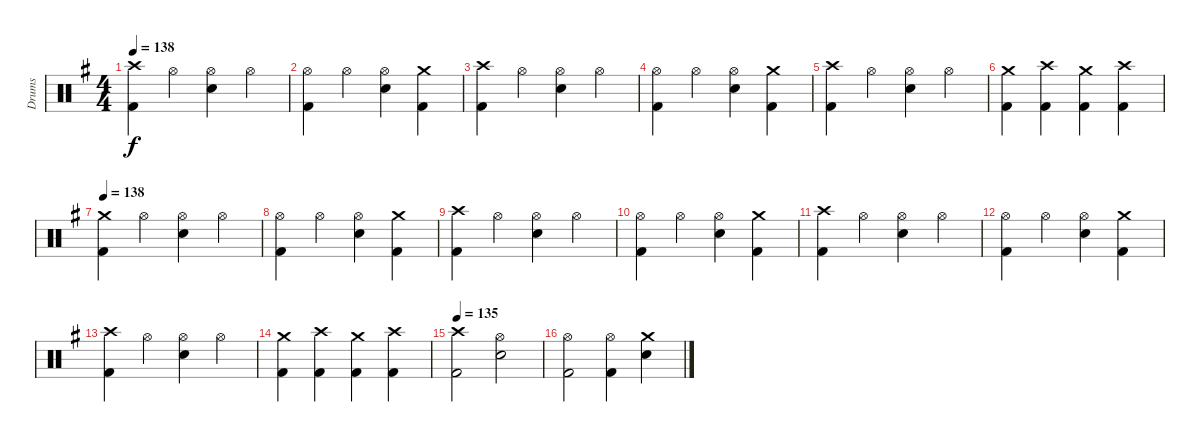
\track ("Drums" "Drums") {mute instrument percussion}
\staff {score}
\articulation defaults
\ts (4 4)
\tempo 138
\clef neutral
\ks g
("Crash high (hit)" "Kick (hit) 2").4{dy f} "Hi-Hat (open)".4 ("Hi-Hat (open)" "Snare (hit) 2").4 "Hi-Hat (open)".4 |
("Hi-Hat (open)" "Kick (hit) 2").4 "Hi-Hat (open)".4 ("Hi-Hat (open)" "Snare (hit) 2").4 ("Crash medium (hit)" "Kick (hit) 2").4 |
("Crash high (hit)" "Kick (hit) 2").4 "Hi-Hat (open)".4 ("Hi-Hat (open)" "Snare (hit) 2").4 "Hi-Hat (open)".4 |
("Hi-Hat (open)" "Kick (hit) 2").4 "Hi-Hat (open)".4 ("Hi-Hat (open)" "Snare (hit) 2").4 ("Crash medium (hit)" "Kick (hit) 2").4 |
("Crash high (hit)" "Kick (hit) 2").4 "Hi-Hat (open)".4 ("Hi-Hat (open)" "Snare (hit) 2").4 "Hi-Hat (open)".4 |
("Crash medium (hit)" "Kick (hit) 2").4 ("Crash high (hit)" "Kick (hit) 2").4 ("Crash medium (hit)" "Kick (hit) 2").4 ("Crash high (hit)" "Kick (hit) 2").4 |
\tempo 138
("Crash medium (hit)" "Kick (hit) 2").4 "Hi-Hat (open)".4 ("Hi-Hat (open)" "Snare (hit) 2").4 "Hi-Hat (open)".4 |
("Hi-Hat (open)" "Kick (hit) 2").4 "Hi-Hat (open)".4 ("Hi-Hat (open)" "Snare (hit) 2").4 ("Crash medium (hit)" "Kick (hit) 2").4 |
("Crash high (hit)" "Kick (hit) 2").4 "Hi-Hat (open)".4 ("Hi-Hat (open)" "Snare (hit) 2").4 "Hi-Hat (open)".4 |
("Hi-Hat (open)" "Kick (hit) 2").4 "Hi-Hat (open)".4 ("Hi-Hat (open)" "Snare (hit) 2").4 ("Crash medium (hit)" "Kick (hit) 2").4 |
("Crash high (hit)" "Kick (hit) 2").4 "Hi-Hat (open)".4 ("Hi-Hat (open)" "Snare (hit) 2").4 "Hi-Hat (open)".4 |
("Hi-Hat (open)" "Kick (hit) 2").4 "Hi-Hat (open)".4 ("Hi-Hat (open)" "Snare (hit) 2").4 ("Crash medium (hit)" "Kick (hit) 2").4 |
("Crash high (hit)" "Kick (hit) 2").4 "Hi-Hat (open)".4 ("Hi-Hat (open)" "Snare (hit) 2").4 "Hi-Hat (open)".4 |
("Crash medium (hit)" "Kick (hit) 2").4 ("Crash high (hit)" "Kick (hit) 2").4 ("Crash medium (hit)" "Kick (hit) 2").4 ("Crash high (hit)" "Kick (hit) 2").4 |
\tempo 135
("Crash high (hit)" "Kick (hit) 2").2 ("Hi-Hat (open)" "Snare (hit) 2").2 |
("Hi-Hat (open)" "Kick (hit) 2").2 ("Hi-Hat (open)" "Kick (hit) 2").4 ("Crash medium (hit)" "Snare (hit) 2").4
